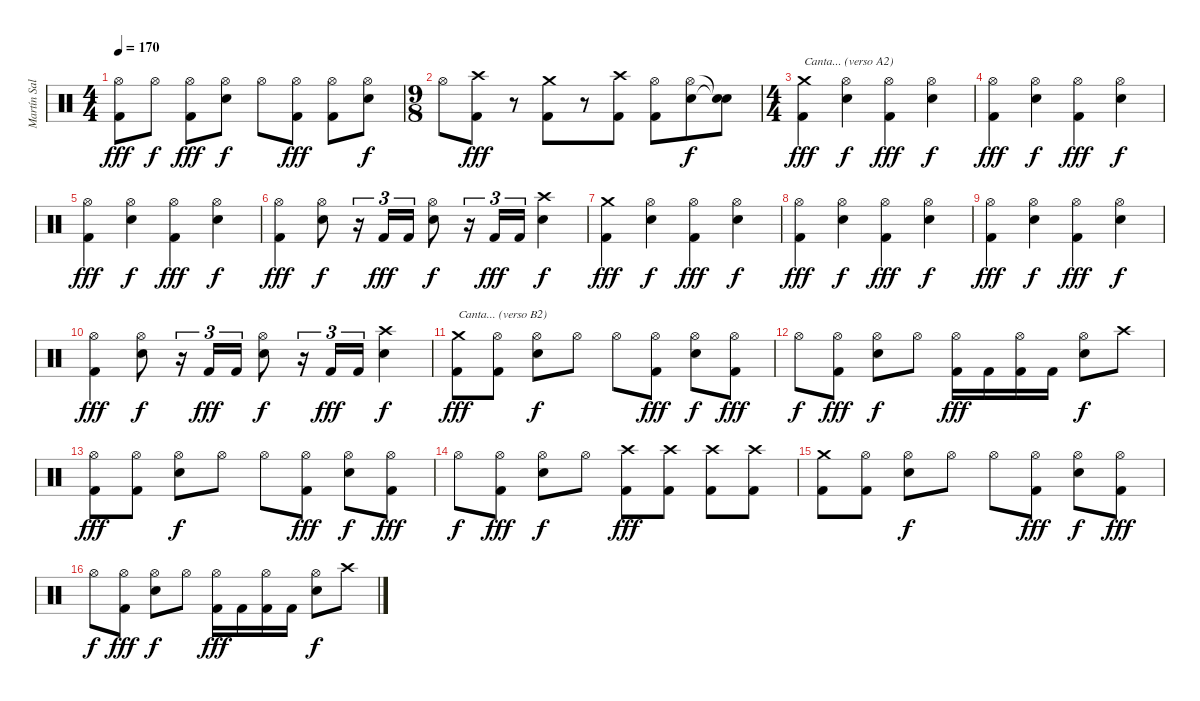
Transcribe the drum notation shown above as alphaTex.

\track ("Martín Salariato" "Martín Sal") {instrument percussion}
\staff {score}
\articulation defaults
\ts (4 4)
\tempo 170
\clef neutral
\ks c
("Hi-Hat (open)" "Kick (hit) 2").8{dy fff} "Hi-Hat (open)".8{dy f} ("Hi-Hat (open)" "Kick (hit) 2").8{dy fff} ("Hi-Hat (open)" "Snare (hit) 2").8{dy f} "Hi-Hat (open)".8 ("Hi-Hat (open)" "Kick (hit) 2").8{dy fff} ("Hi-Hat (open)" "Kick (hit) 2").8 ("Hi-Hat (open)" "Snare (hit) 2").8{dy f} |
\ts (9 8)
"Hi-Hat (open)".8 ("Crash high (hit)" "Kick (hit) 2").8{dy fff} r.8 ("Crash medium (hit)" "Kick (hit) 2").8 r.8 ("Crash high (hit)" "Kick (hit) 2").8 ("Hi-Hat (open)" "Kick (hit) 2").8 ("Hi-Hat (open)" "Snare (hit) 2").8{dy f} ("Snare (hit)"{t} "Snare (hit)"{t}).8 |
\ts (4 4)
("Crash medium (hit)" "Kick (hit) 2").4{txt "Canta... (verso A2)" dy fff} ("Hi-Hat (open)" "Snare (hit) 2").4{dy f} ("Hi-Hat (open)" "Kick (hit) 2").4{dy fff} ("Hi-Hat (open)" "Snare (hit) 2").4{dy f} |
("Hi-Hat (open)" "Kick (hit) 2").4{dy fff} ("Hi-Hat (open)" "Snare (hit) 2").4{dy f} ("Hi-Hat (open)" "Kick (hit) 2").4{dy fff} ("Hi-Hat (open)" "Snare (hit) 2").4{dy f} |
("Hi-Hat (open)" "Kick (hit) 2").4{dy fff} ("Hi-Hat (open)" "Snare (hit) 2").4{dy f} ("Hi-Hat (open)" "Kick (hit) 2").4{dy fff} ("Hi-Hat (open)" "Snare (hit) 2").4{dy f} |
("Hi-Hat (open)" "Kick (hit) 2").4{dy fff} ("Hi-Hat (open)" "Snare (hit) 2").8{dy f} r.16{tu (3 2)} "Kick (hit) 2".16{tu (3 2) dy fff} "Kick (hit) 2".16{tu (3 2)} ("Hi-Hat (open)" "Snare (hit) 2").8{dy f} r.16{tu (3 2)} "Kick (hit) 2".16{tu (3 2) dy fff} "Kick (hit) 2".16{tu (3 2)} ("Crash high (hit)" "Snare (hit) 2").4{dy f} |
("Crash medium (hit)" "Kick (hit) 2").4{dy fff} ("Hi-Hat (open)" "Snare (hit) 2").4{dy f} ("Hi-Hat (open)" "Kick (hit) 2").4{dy fff} ("Hi-Hat (open)" "Snare (hit) 2").4{dy f} |
("Hi-Hat (open)" "Kick (hit) 2").4{dy fff} ("Hi-Hat (open)" "Snare (hit) 2").4{dy f} ("Hi-Hat (open)" "Kick (hit) 2").4{dy fff} ("Hi-Hat (open)" "Snare (hit) 2").4{dy f} |
("Hi-Hat (open)" "Kick (hit) 2").4{dy fff} ("Hi-Hat (open)" "Snare (hit) 2").4{dy f} ("Hi-Hat (open)" "Kick (hit) 2").4{dy fff} ("Hi-Hat (open)" "Snare (hit) 2").4{dy f} |
("Hi-Hat (open)" "Kick (hit) 2").4{dy fff} ("Hi-Hat (open)" "Snare (hit) 2").8{dy f} r.16{tu (3 2)} "Kick (hit) 2".16{tu (3 2) dy fff} "Kick (hit) 2".16{tu (3 2)} ("Hi-Hat (open)" "Snare (hit) 2").8{dy f} r.16{tu (3 2)} "Kick (hit) 2".16{tu (3 2) dy fff} "Kick (hit) 2".16{tu (3 2)} ("Crash high (hit)" "Snare (hit) 2").4{dy f} |
("Crash medium (hit)" "Kick (hit) 2").8{txt "Canta... (verso B2)" dy fff} ("Hi-Hat (open)" "Kick (hit) 2").8 ("Hi-Hat (open)" "Snare (hit) 2").8{dy f} "Hi-Hat (open)".8 "Hi-Hat (open)".8 ("Hi-Hat (open)" "Kick (hit) 2").8{dy fff} ("Hi-Hat (open)" "Snare (hit) 2").8{dy f} ("Hi-Hat (open)" "Kick (hit) 2").8{dy fff} |
"Hi-Hat (open)".8{dy f} ("Hi-Hat (open)" "Kick (hit) 2").8{dy fff} ("Hi-Hat (open)" "Snare (hit) 2").8{dy f} "Hi-Hat (open)".8 ("Hi-Hat (open)" "Kick (hit) 2").16{dy fff} "Kick (hit) 2".16 ("Hi-Hat (open)" "Kick (hit) 2").16 "Kick (hit) 2".16 ("Hi-Hat (open)" "Snare (hit) 2").8{dy f} "Crash high (hit)".8 |
("Hi-Hat (open)" "Kick (hit) 2").8{dy fff} ("Hi-Hat (open)" "Kick (hit) 2").8 ("Hi-Hat (open)" "Snare (hit) 2").8{dy f} "Hi-Hat (open)".8 "Hi-Hat (open)".8 ("Hi-Hat (open)" "Kick (hit) 2").8{dy fff} ("Hi-Hat (open)" "Snare (hit) 2").8{dy f} ("Hi-Hat (open)" "Kick (hit) 2").8{dy fff} |
"Hi-Hat (open)".8{dy f} ("Hi-Hat (open)" "Kick (hit) 2").8{dy fff} ("Hi-Hat (open)" "Snare (hit) 2").8{dy f} "Hi-Hat (open)".8 ("Crash high (hit)" "Kick (hit) 2").8{dy fff} ("Crash high (hit)" "Kick (hit) 2").8 ("Crash high (hit)" "Kick (hit) 2").8 ("Crash high (hit)" "Kick (hit) 2").8 |
("Crash medium (hit)" "Kick (hit) 2").8 ("Hi-Hat (open)" "Kick (hit) 2").8 ("Hi-Hat (open)" "Snare (hit) 2").8{dy f} "Hi-Hat (open)".8 "Hi-Hat (open)".8 ("Hi-Hat (open)" "Kick (hit) 2").8{dy fff} ("Hi-Hat (open)" "Snare (hit) 2").8{dy f} ("Hi-Hat (open)" "Kick (hit) 2").8{dy fff} |
"Hi-Hat (open)".8{dy f} ("Hi-Hat (open)" "Kick (hit) 2").8{dy fff} ("Hi-Hat (open)" "Snare (hit) 2").8{dy f} "Hi-Hat (open)".8 ("Hi-Hat (open)" "Kick (hit) 2").16{dy fff} "Kick (hit) 2".16 ("Hi-Hat (open)" "Kick (hit) 2").16 "Kick (hit) 2".16 ("Hi-Hat (open)" "Snare (hit) 2").8{dy f} "Crash high (hit)".8
